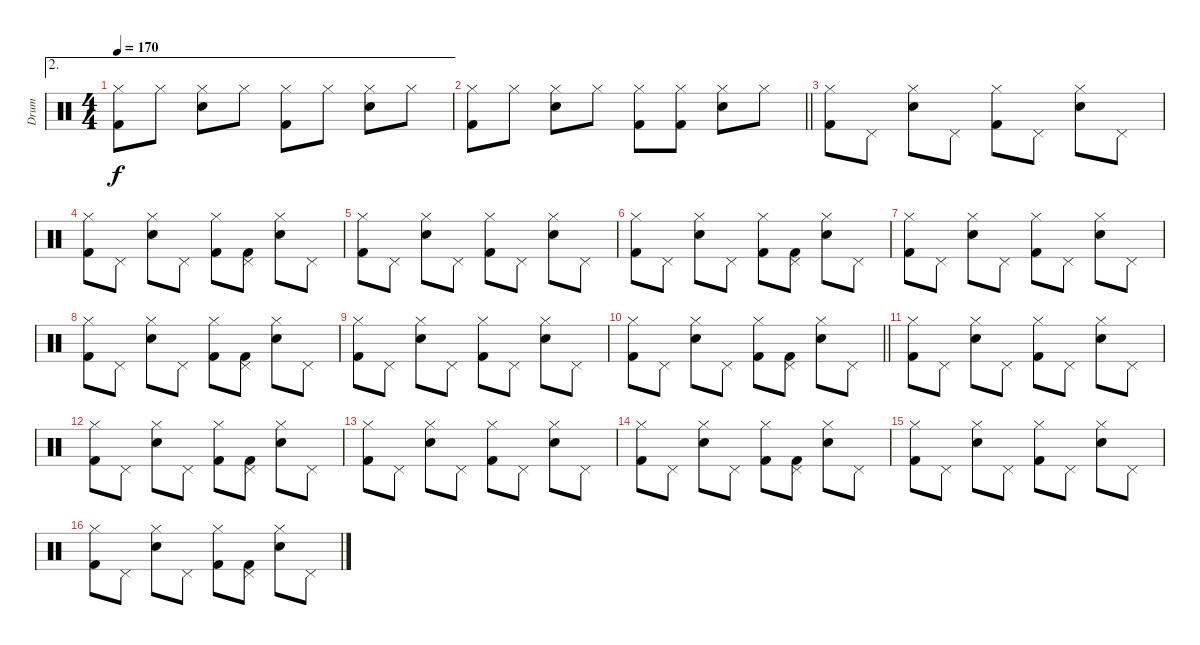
\track ("Drum" "Drum") {instrument percussion}
\staff {score}
\articulation defaults
\ae 2
\ts (4 4)
\tempo 170
\clef neutral
\ks c
("Hi-Hat (closed)" "Kick (hit) 2").8{dy f} "Hi-Hat (closed)".8 ("Hi-Hat (closed)" "Snare (hit) 2").8 "Hi-Hat (closed)".8 ("Hi-Hat (closed)" "Kick (hit) 2").8 "Hi-Hat (closed)".8 ("Hi-Hat (closed)" "Snare (hit) 2").8 "Hi-Hat (closed)".8 |
\barLineRight lightlight
("Hi-Hat (closed)" "Kick (hit) 2").8 "Hi-Hat (closed)".8 ("Hi-Hat (closed)" "Snare (hit) 2").8 "Hi-Hat (closed)".8 ("Hi-Hat (closed)" "Kick (hit) 2").8 ("Hi-Hat (closed)" "Kick (hit) 2").8 ("Hi-Hat (closed)" "Snare (hit) 2").8 "Hi-Hat (closed)".8 |
("Hi-Hat (closed)" "Kick (hit) 2").8 "Pedal Hi-Hat (hit)".8 ("Hi-Hat (closed)" "Snare (hit) 2").8 "Pedal Hi-Hat (hit)".8 ("Hi-Hat (closed)" "Kick (hit) 2").8 "Pedal Hi-Hat (hit)".8 ("Hi-Hat (closed)" "Snare (hit) 2").8 "Pedal Hi-Hat (hit)".8 |
("Hi-Hat (closed)" "Kick (hit) 2").8 "Pedal Hi-Hat (hit)".8 ("Hi-Hat (closed)" "Snare (hit) 2").8 "Pedal Hi-Hat (hit)".8 ("Hi-Hat (closed)" "Kick (hit) 2").8 ("Pedal Hi-Hat (hit)" "Kick (hit) 2").8 ("Hi-Hat (closed)" "Snare (hit) 2").8 "Pedal Hi-Hat (hit)".8 |
("Hi-Hat (closed)" "Kick (hit) 2").8 "Pedal Hi-Hat (hit)".8 ("Hi-Hat (closed)" "Snare (hit) 2").8 "Pedal Hi-Hat (hit)".8 ("Hi-Hat (closed)" "Kick (hit) 2").8 "Pedal Hi-Hat (hit)".8 ("Hi-Hat (closed)" "Snare (hit) 2").8 "Pedal Hi-Hat (hit)".8 |
("Hi-Hat (closed)" "Kick (hit) 2").8 "Pedal Hi-Hat (hit)".8 ("Hi-Hat (closed)" "Snare (hit) 2").8 "Pedal Hi-Hat (hit)".8 ("Hi-Hat (closed)" "Kick (hit) 2").8 ("Pedal Hi-Hat (hit)" "Kick (hit) 2").8 ("Hi-Hat (closed)" "Snare (hit) 2").8 "Pedal Hi-Hat (hit)".8 |
("Hi-Hat (closed)" "Kick (hit) 2").8 "Pedal Hi-Hat (hit)".8 ("Hi-Hat (closed)" "Snare (hit) 2").8 "Pedal Hi-Hat (hit)".8 ("Hi-Hat (closed)" "Kick (hit) 2").8 "Pedal Hi-Hat (hit)".8 ("Hi-Hat (closed)" "Snare (hit) 2").8 "Pedal Hi-Hat (hit)".8 |
("Hi-Hat (closed)" "Kick (hit) 2").8 "Pedal Hi-Hat (hit)".8 ("Hi-Hat (closed)" "Snare (hit) 2").8 "Pedal Hi-Hat (hit)".8 ("Hi-Hat (closed)" "Kick (hit) 2").8 ("Pedal Hi-Hat (hit)" "Kick (hit) 2").8 ("Hi-Hat (closed)" "Snare (hit) 2").8 "Pedal Hi-Hat (hit)".8 |
("Hi-Hat (closed)" "Kick (hit) 2").8 "Pedal Hi-Hat (hit)".8 ("Hi-Hat (closed)" "Snare (hit) 2").8 "Pedal Hi-Hat (hit)".8 ("Hi-Hat (closed)" "Kick (hit) 2").8 "Pedal Hi-Hat (hit)".8 ("Hi-Hat (closed)" "Snare (hit) 2").8 "Pedal Hi-Hat (hit)".8 |
\barLineRight lightlight
("Hi-Hat (closed)" "Kick (hit) 2").8 "Pedal Hi-Hat (hit)".8 ("Hi-Hat (closed)" "Snare (hit) 2").8 "Pedal Hi-Hat (hit)".8 ("Hi-Hat (closed)" "Kick (hit) 2").8 ("Pedal Hi-Hat (hit)" "Kick (hit) 2").8 ("Hi-Hat (closed)" "Snare (hit) 2").8 "Pedal Hi-Hat (hit)".8 |
("Hi-Hat (closed)" "Kick (hit) 2").8 "Pedal Hi-Hat (hit)".8 ("Hi-Hat (closed)" "Snare (hit) 2").8 "Pedal Hi-Hat (hit)".8 ("Hi-Hat (closed)" "Kick (hit) 2").8 "Pedal Hi-Hat (hit)".8 ("Hi-Hat (closed)" "Snare (hit) 2").8 "Pedal Hi-Hat (hit)".8 |
("Hi-Hat (closed)" "Kick (hit) 2").8 "Pedal Hi-Hat (hit)".8 ("Hi-Hat (closed)" "Snare (hit) 2").8 "Pedal Hi-Hat (hit)".8 ("Hi-Hat (closed)" "Kick (hit) 2").8 ("Pedal Hi-Hat (hit)" "Kick (hit) 2").8 ("Hi-Hat (closed)" "Snare (hit) 2").8 "Pedal Hi-Hat (hit)".8 |
("Hi-Hat (closed)" "Kick (hit) 2").8 "Pedal Hi-Hat (hit)".8 ("Hi-Hat (closed)" "Snare (hit) 2").8 "Pedal Hi-Hat (hit)".8 ("Hi-Hat (closed)" "Kick (hit) 2").8 "Pedal Hi-Hat (hit)".8 ("Hi-Hat (closed)" "Snare (hit) 2").8 "Pedal Hi-Hat (hit)".8 |
("Hi-Hat (closed)" "Kick (hit) 2").8 "Pedal Hi-Hat (hit)".8 ("Hi-Hat (closed)" "Snare (hit) 2").8 "Pedal Hi-Hat (hit)".8 ("Hi-Hat (closed)" "Kick (hit) 2").8 ("Pedal Hi-Hat (hit)" "Kick (hit) 2").8 ("Hi-Hat (closed)" "Snare (hit) 2").8 "Pedal Hi-Hat (hit)".8 |
("Hi-Hat (closed)" "Kick (hit) 2").8 "Pedal Hi-Hat (hit)".8 ("Hi-Hat (closed)" "Snare (hit) 2").8 "Pedal Hi-Hat (hit)".8 ("Hi-Hat (closed)" "Kick (hit) 2").8 "Pedal Hi-Hat (hit)".8 ("Hi-Hat (closed)" "Snare (hit) 2").8 "Pedal Hi-Hat (hit)".8 |
("Hi-Hat (closed)" "Kick (hit) 2").8 "Pedal Hi-Hat (hit)".8 ("Hi-Hat (closed)" "Snare (hit) 2").8 "Pedal Hi-Hat (hit)".8 ("Hi-Hat (closed)" "Kick (hit) 2").8 ("Pedal Hi-Hat (hit)" "Kick (hit) 2").8 ("Hi-Hat (closed)" "Snare (hit) 2").8 "Pedal Hi-Hat (hit)".8
